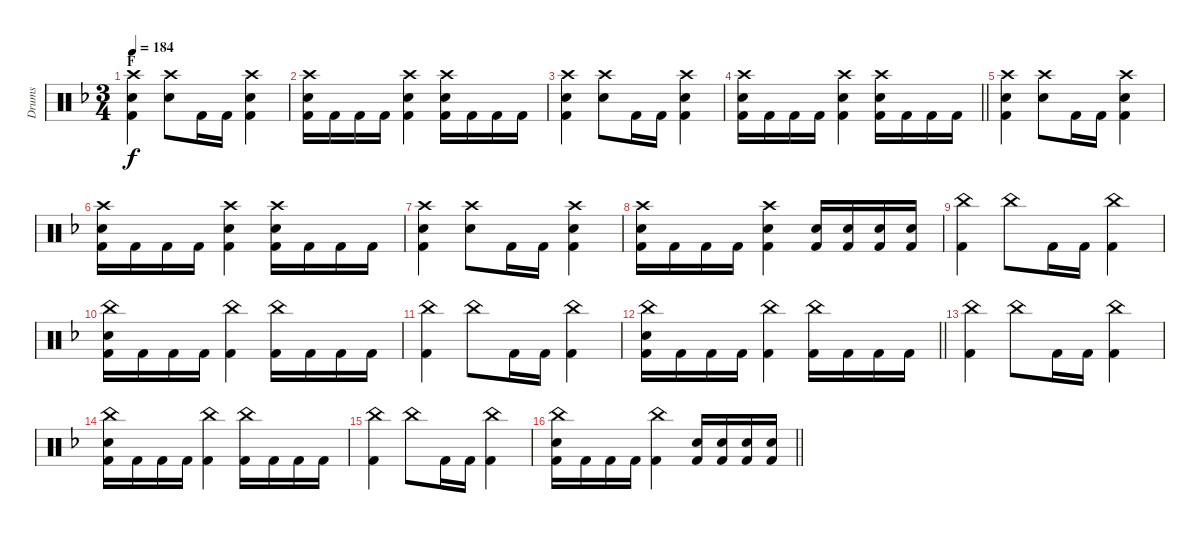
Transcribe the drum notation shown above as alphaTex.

\track ("Drums" "Drums") {instrument percussion}
\staff {score}
\articulation defaults
\ts (3 4)
\section ("" "F")
\tempo 184
\clef neutral
\ks f
("Crash high (hit)" "Electric Snare (hit)" "Kick (hit) 2").4{dy f} ("Crash high (hit)" "Electric Snare (hit)").8 "Kick (hit) 2".16 "Kick (hit) 2".16 ("Crash high (hit)" "Electric Snare (hit)" "Kick (hit) 2").4 |
("Crash high (hit)" "Electric Snare (hit)" "Kick (hit) 2").16 "Kick (hit) 2".16 "Kick (hit) 2".16 "Kick (hit) 2".16 ("Crash high (hit)" "Electric Snare (hit)" "Kick (hit) 2").4 ("Crash high (hit)" "Electric Snare (hit)" "Kick (hit) 2").16 "Kick (hit) 2".16 "Kick (hit) 2".16 "Kick (hit) 2".16 |
("Crash high (hit)" "Electric Snare (hit)" "Kick (hit) 2").4 ("Crash high (hit)" "Electric Snare (hit)").8 "Kick (hit) 2".16 "Kick (hit) 2".16 ("Crash high (hit)" "Electric Snare (hit)" "Kick (hit) 2").4 |
\barLineRight lightlight
("Crash high (hit)" "Electric Snare (hit)" "Kick (hit) 2").16 "Kick (hit) 2".16 "Kick (hit) 2".16 "Kick (hit) 2".16 ("Crash high (hit)" "Electric Snare (hit)" "Kick (hit) 2").4 ("Crash high (hit)" "Electric Snare (hit)" "Kick (hit) 2").16 "Kick (hit) 2".16 "Kick (hit) 2".16 "Kick (hit) 2".16 |
("Crash high (hit)" "Electric Snare (hit)" "Kick (hit) 2").4 ("Crash high (hit)" "Electric Snare (hit)").8 "Kick (hit) 2".16 "Kick (hit) 2".16 ("Crash high (hit)" "Electric Snare (hit)" "Kick (hit) 2").4 |
("Crash high (hit)" "Electric Snare (hit)" "Kick (hit) 2").16 "Kick (hit) 2".16 "Kick (hit) 2".16 "Kick (hit) 2".16 ("Crash high (hit)" "Electric Snare (hit)" "Kick (hit) 2").4 ("Crash high (hit)" "Electric Snare (hit)" "Kick (hit) 2").16 "Kick (hit) 2".16 "Kick (hit) 2".16 "Kick (hit) 2".16 |
("Crash high (hit)" "Electric Snare (hit)" "Kick (hit) 2").4 ("Crash high (hit)" "Electric Snare (hit)").8 "Kick (hit) 2".16 "Kick (hit) 2".16 ("Crash high (hit)" "Electric Snare (hit)" "Kick (hit) 2").4 |
("Crash high (hit)" "Electric Snare (hit)" "Kick (hit) 2").16 "Kick (hit) 2".16 "Kick (hit) 2".16 "Kick (hit) 2".16 ("Crash high (hit)" "Electric Snare (hit)" "Kick (hit) 2").4 ("Electric Snare (hit)" "Kick (hit) 2").16 ("Electric Snare (hit)" "Kick (hit) 2").16 ("Electric Snare (hit)" "Kick (hit) 2").16 ("Electric Snare (hit)" "Kick (hit) 2").16 |
("China (hit)" "Kick (hit) 2").4 "China (hit)".8 "Kick (hit) 2".16 "Kick (hit) 2".16 ("China (hit)" "Kick (hit) 2").4 |
("China (hit)" "Electric Snare (hit)" "Kick (hit) 2").16 "Kick (hit) 2".16 "Kick (hit) 2".16 "Kick (hit) 2".16 ("China (hit)" "Kick (hit) 2").4 ("China (hit)" "Kick (hit) 2").16 "Kick (hit) 2".16 "Kick (hit) 2".16 "Kick (hit) 2".16 |
("China (hit)" "Kick (hit) 2").4 "China (hit)".8 "Kick (hit) 2".16 "Kick (hit) 2".16 ("China (hit)" "Kick (hit) 2").4 |
\barLineRight lightlight
("China (hit)" "Electric Snare (hit)" "Kick (hit) 2").16 "Kick (hit) 2".16 "Kick (hit) 2".16 "Kick (hit) 2".16 ("China (hit)" "Kick (hit) 2").4 ("China (hit)" "Kick (hit) 2").16 "Kick (hit) 2".16 "Kick (hit) 2".16 "Kick (hit) 2".16 |
("China (hit)" "Kick (hit) 2").4 "China (hit)".8 "Kick (hit) 2".16 "Kick (hit) 2".16 ("China (hit)" "Kick (hit) 2").4 |
("China (hit)" "Electric Snare (hit)" "Kick (hit) 2").16 "Kick (hit) 2".16 "Kick (hit) 2".16 "Kick (hit) 2".16 ("China (hit)" "Kick (hit) 2").4 ("China (hit)" "Kick (hit) 2").16 "Kick (hit) 2".16 "Kick (hit) 2".16 "Kick (hit) 2".16 |
("China (hit)" "Kick (hit) 2").4 "China (hit)".8 "Kick (hit) 2".16 "Kick (hit) 2".16 ("China (hit)" "Kick (hit) 2").4 |
\barLineRight lightlight
("China (hit)" "Electric Snare (hit)" "Kick (hit) 2").16 "Kick (hit) 2".16 "Kick (hit) 2".16 "Kick (hit) 2".16 ("China (hit)" "Kick (hit) 2").4 ("Electric Snare (hit)" "Kick (hit) 2").16 ("Electric Snare (hit)" "Kick (hit) 2").16 ("Electric Snare (hit)" "Kick (hit) 2").16 ("Electric Snare (hit)" "Kick (hit) 2").16
